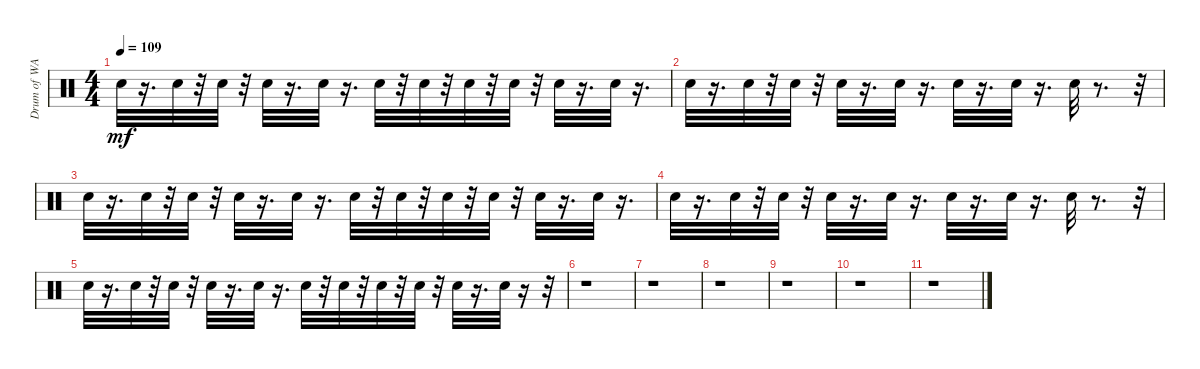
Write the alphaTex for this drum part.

\track ("Drum of WAR" "Drum of WA") {instrument percussion}
\staff {score}
\articulation defaults
\ts (4 4)
\tempo 109
\clef neutral
\ks c "Snare (hit) 2".32{dy mf}
r.16{d} "Snare (hit) 2".32 r.32 "Snare (hit) 2".32 r.32 "Snare (hit) 2".32 r.16{d} "Snare (hit) 2".32 r.16{d} "Snare (hit) 2".32 r.32 "Snare (hit) 2".32 r.32 "Snare (hit) 2".32 r.32 "Snare (hit) 2".32 r.32 "Snare (hit) 2".32 r.16{d} "Snare (hit) 2".32 r.16{d} |
"Snare (hit) 2".32 r.16{d} "Snare (hit) 2".32 r.32 "Snare (hit) 2".32 r.32 "Snare (hit) 2".32 r.16{d} "Snare (hit) 2".32 r.16{d} "Snare (hit) 2".32 r.16{d} "Snare (hit) 2".32 r.16{d} "Snare (hit) 2".32 r.8{d} r.32 |
"Snare (hit) 2".32 r.16{d} "Snare (hit) 2".32 r.32 "Snare (hit) 2".32 r.32 "Snare (hit) 2".32 r.16{d} "Snare (hit) 2".32 r.16{d} "Snare (hit) 2".32 r.32 "Snare (hit) 2".32 r.32 "Snare (hit) 2".32 r.32 "Snare (hit) 2".32 r.32 "Snare (hit) 2".32 r.16{d} "Snare (hit) 2".32 r.16{d} |
"Snare (hit) 2".32 r.16{d} "Snare (hit) 2".32 r.32 "Snare (hit) 2".32 r.32 "Snare (hit) 2".32 r.16{d} "Snare (hit) 2".32 r.16{d} "Snare (hit) 2".32 r.16{d} "Snare (hit) 2".32 r.16{d} "Snare (hit) 2".32 r.8{d} r.32 |
"Snare (hit) 2".32 r.16{d} "Snare (hit) 2".32 r.32 "Snare (hit) 2".32 r.32 "Snare (hit) 2".32 r.16{d} "Snare (hit) 2".32 r.16{d} "Snare (hit) 2".32 r.32 "Snare (hit) 2".32 r.32 "Snare (hit) 2".32 r.32 "Snare (hit) 2".32 r.32 "Snare (hit) 2".32 r.16{d} "Snare (hit) 2".32 r.16 r.32 |
r.1 |
r.1 |
r.1 |
r.1 |
r.1 |
r.1
